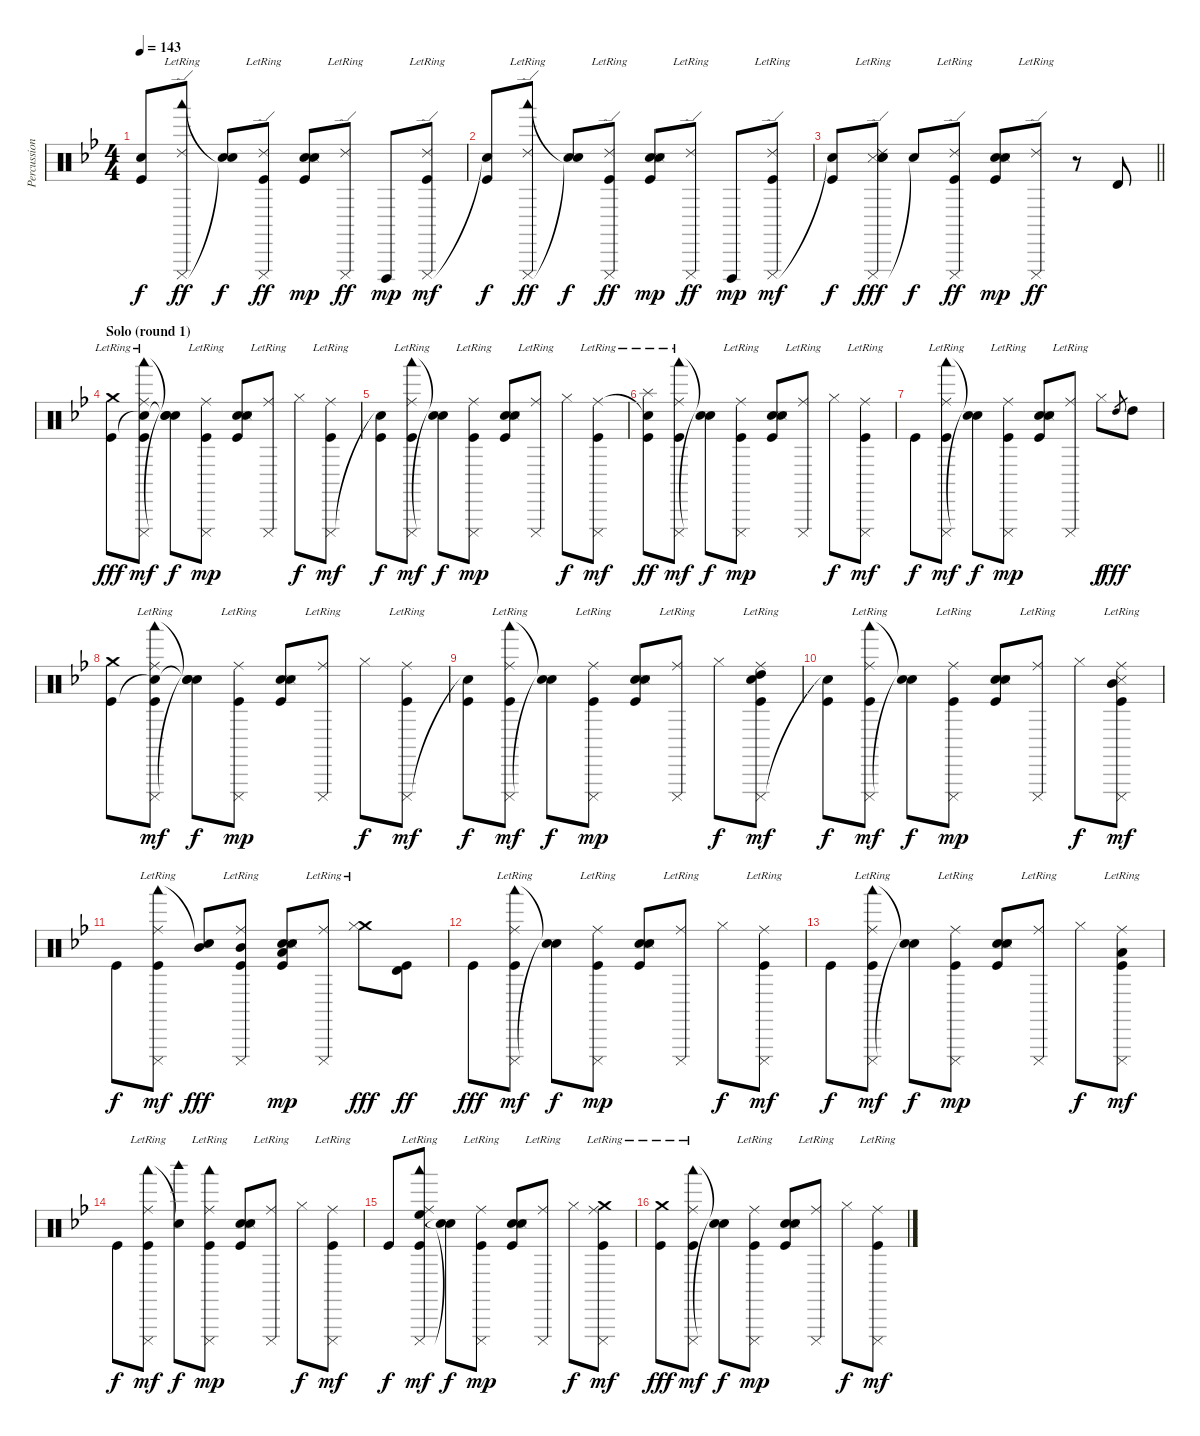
\track ("Percussion" "Percussion") {instrument percussion}
\staff {score}
\articulation defaults
\ts (4 4)
\tempo 143
\clef neutral
\ks gminor
("Snare (hit)"{t} "Kick (hit)").8{dy f} ("Cuica (mute)" "Woodblock low (hit)" "Ride (edge) 2"{lr}).8{dy ff} ("Snare (hit)"{t} "Snare (hit)"{t}).8{dy f} ("Cuica (mute)" "Ride (edge) 2"{lr} "Kick (hit)").8{dy ff} ("Snare (hit) 2" "Snare (side stick) 3" "Snare (hit) 2" "Kick (hit)").8{dy mp} ("Cuica (mute)" "Ride (edge) 2"{lr}).8{dy ff} "Cuica (open)".8{dy mp} ("Cuica (mute)" "Ride (edge) 2"{lr} "Kick (hit)").8{dy mf} |
("Snare (hit)"{t} "Kick (hit)").8{dy f} ("Cuica (mute)" "Woodblock low (hit)" "Ride (edge) 2"{lr}).8{dy ff} ("Snare (hit)"{t} "Snare (hit)"{t}).8{dy f} ("Cuica (mute)" "Ride (edge) 2"{lr} "Kick (hit)").8{dy ff} ("Snare (hit) 2" "Snare (side stick) 3" "Snare (hit) 2" "Kick (hit)").8{dy mp} ("Cuica (mute)" "Ride (edge) 2"{lr}).8{dy ff} "Cuica (open)".8{dy mp} ("Cuica (mute)" "Ride (edge) 2"{lr} "Kick (hit)").8{dy mf} |
\barLineRight lightlight
("Snare (hit)"{t} "Kick (hit)").8{dy f} ("Cuica (mute)" "Snare (side stick) 3" "Snare (hit) 2" "Ride (edge) 2"{lr} "Snare (hit) 2").8{dy fff} "Snare (hit)"{t}.8{dy f} ("Cuica (mute)" "Ride (edge) 2"{lr} "Kick (hit)").8{dy ff} ("Snare (hit) 2" "Snare (side stick) 3" "Snare (hit) 2" "Kick (hit)").8{dy mp} ("Cuica (mute)" "Ride (edge) 2"{lr}).8{dy ff} r.8 "Timbale high (hit)".8 |
\section ("" "Solo (round 1)")
("Crash medium (hit)"{lr} "Kick (hit)").8{dy fff} ("Cuica (mute)" "Snare (hit)"{t} "Woodblock low (hit)" "Ride (middle)"{lr} "Kick (hit)").8{dy mf} ("Snare (hit)"{t} "Snare (hit)"{t} "Snare (hit)"{t}).8{dy f} ("Cuica (mute)" "Ride (middle)"{lr} "Kick (hit)").8{dy mp} ("Snare (hit) 2" "Snare (side stick) 3" "Snare (hit) 2" "Kick (hit)").8 ("Cuica (mute)" "Ride (middle)"{lr}).8 "Hi-Hat (closed)".8{dy f} ("Cuica (mute)" "Ride (middle)"{lr} "Kick (hit)").8{dy mf} |
("Snare (hit)"{t} "Kick (hit)").8{dy f} ("Cuica (mute)" "Woodblock low (hit)" "Ride (middle)"{lr} "Kick (hit)").8{dy mf} ("Snare (hit)"{t} "Snare (hit)"{t}).8{dy f} ("Cuica (mute)" "Ride (middle)"{lr} "Kick (hit)").8{dy mp} ("Snare (hit) 2" "Snare (side stick) 3" "Snare (hit) 2" "Kick (hit)").8 ("Cuica (mute)" "Ride (middle)"{lr}).8 "Hi-Hat (closed)".8{dy f} ("Cuica (mute)" "Ride (middle)"{lr} "Kick (hit)").8{dy mf} |
("Splash (hit)"{lr} "Snare (hit)"{t} "Kick (hit)").8{dy ff} ("Cuica (mute)" "Woodblock low (hit)" "Ride (middle)"{lr} "Kick (hit)").8{dy mf} ("Snare (hit)"{t} "Snare (hit)"{t}).8{dy f} ("Cuica (mute)" "Ride (middle)"{lr} "Kick (hit)").8{dy mp} ("Snare (hit) 2" "Snare (side stick) 3" "Snare (hit) 2" "Kick (hit)").8 ("Cuica (mute)" "Ride (middle)"{lr}).8 "Hi-Hat (closed)".8{dy f} ("Cuica (mute)" "Ride (middle)"{lr} "Kick (hit)").8{dy mf} |
"Kick (hit)".8{dy f} ("Cuica (mute)" "Woodblock low (hit)" "Ride (middle)"{lr} "Kick (hit)").8{dy mf} ("Snare (hit)"{t} "Snare (hit)"{t}).8{dy f} ("Cuica (mute)" "Ride (middle)"{lr} "Kick (hit)").8{dy mp} ("Snare (hit) 2" "Snare (side stick) 3" "Snare (hit) 2" "Kick (hit)").8 ("Cuica (mute)" "Ride (middle)"{lr}).8 "Hi-Hat (closed)".8{dy f} "High Tom (hit)".8{gr dy fff} "High Tom (hit)".8 |
("Crash medium (hit)" "Kick (hit)").8 ("Cuica (mute)" "Snare (hit)"{t} "Woodblock low (hit)" "Ride (middle)"{lr} "Kick (hit)").8{dy mf} ("Snare (hit)"{t} "Snare (hit)"{t} "Snare (hit)"{t}).8{dy f} ("Cuica (mute)" "Ride (middle)"{lr} "Kick (hit)").8{dy mp} ("Snare (hit) 2" "Snare (side stick) 3" "Snare (hit) 2" "Kick (hit)").8 ("Cuica (mute)" "Ride (middle)"{lr}).8 "Hi-Hat (closed)".8{dy f} ("Cuica (mute)" "Ride (middle)"{lr} "Kick (hit)").8{dy mf} |
("Snare (hit)"{t} "Kick (hit)").8{dy f} ("Cuica (mute)" "Woodblock low (hit)" "Ride (middle)"{lr} "Kick (hit)").8{dy mf} ("Snare (hit)"{t} "Snare (hit)"{t}).8{dy f} ("Cuica (mute)" "Ride (middle)"{lr} "Kick (hit)").8{dy mp} ("Snare (hit) 2" "Snare (side stick) 3" "Snare (hit) 2" "Kick (hit)").8 ("Cuica (mute)" "Ride (middle)"{lr}).8 "Hi-Hat (closed)".8{dy f} ("Cuica (mute)" "Snare (hit) 2" "High Tom (hit)"{lr} "Ride (middle)"{lr} "Kick (hit)").8{dy mf} |
("Snare (hit)"{t} "Kick (hit)").8{dy f} ("Cuica (mute)" "Woodblock low (hit)" "Ride (middle)"{lr} "Kick (hit)").8{dy mf} ("Snare (hit)"{t} "Snare (hit)"{t}).8{dy f} ("Cuica (mute)" "Ride (middle)"{lr} "Kick (hit)").8{dy mp} ("Snare (hit) 2" "Snare (side stick) 3" "Snare (hit) 2" "Kick (hit)").8 ("Cuica (mute)" "Ride (middle)"{lr}).8 "Hi-Hat (closed)".8{dy f} ("Cuica (mute)" "Snare (side stick) 3" "Mid Tom (hit)"{lr} "Ride (middle)"{lr} "Kick (hit)").8{dy mf} |
"Kick (hit)".8{dy f} ("Cuica (mute)" "Woodblock low (hit)" "Ride (middle)"{lr} "Kick (hit)").8{dy mf} ("Mid Tom (hit)" "Snare (hit)"{t}).8{dy fff} ("Cuica (mute)" "Mid Tom (hit)" "Ride (middle)"{lr} "Kick (hit)").8 ("Snare (hit) 2" "Snare (side stick) 3" "Snare (hit) 2" "Low Tom (hit)" "Kick (hit)").8{dy mp} ("Cuica (mute)" "Ride (middle)"{lr}).8 ("Crash medium (hit)"{lr} "Hi-Hat (closed)").8{dy fff} ("Timbale high (hit)" "Kick (hit)").8{dy ff} |
"Kick (hit)".8{dy fff} ("Cuica (mute)" "Woodblock low (hit)" "Ride (middle)"{lr} "Kick (hit)").8{dy mf} ("Snare (hit)"{t} "Snare (hit)"{t}).8{dy f} ("Cuica (mute)" "Ride (middle)"{lr} "Kick (hit)").8{dy mp} ("Snare (hit) 2" "Snare (side stick) 3" "Snare (hit) 2" "Kick (hit)").8 ("Cuica (mute)" "Ride (middle)"{lr}).8 "Hi-Hat (closed)".8{dy f} ("Cuica (mute)" "Ride (middle)"{lr} "Kick (hit)").8{dy mf} |
"Kick (hit)".8{dy f} ("Cuica (mute)" "Woodblock low (hit)" "Ride (middle)"{lr} "Kick (hit)").8{dy mf} ("Snare (hit)"{t} "Snare (hit)"{t}).8{dy f} ("Cuica (mute)" "Ride (middle)"{lr} "Kick (hit)").8{dy mp} ("Snare (hit) 2" "Snare (side stick) 3" "Snare (hit) 2" "Kick (hit)").8 ("Cuica (mute)" "Ride (middle)"{lr}).8 "Hi-Hat (closed)".8{dy f} ("Cuica (mute)" "Low Tom (hit)"{lr} "Ride (middle)"{lr} "Kick (hit)").8{dy mf} |
"Kick (hit)".8{dy f} ("Cuica (mute)" "Woodblock low (hit)" "Ride (middle)"{lr} "Kick (hit)").8{dy mf} ("Woodblock high (hit)" "Snare (hit)"{t}).8{dy f} ("Cuica (mute)" "Woodblock low (hit)" "Ride (middle)"{lr} "Kick (hit)").8{dy mp} ("Snare (hit) 2" "Snare (side stick) 3" "Snare (hit) 2" "Kick (hit)").8 ("Cuica (mute)" "Ride (middle)"{lr}).8 "Hi-Hat (closed)".8{dy f} ("Cuica (mute)" "Ride (middle)"{lr} "Kick (hit)").8{dy mf} |
"Kick (hit)".8{dy f} ("Cuica (mute)" "High Floor Tom (hit)" "Woodblock low (hit)" "Ride (middle)"{lr} "Kick (hit)").8{dy mf} ("Snare (hit)"{t} "Snare (hit)"{t}).8{dy f} ("Cuica (mute)" "Ride (middle)"{lr} "Kick (hit)").8{dy mp} ("Snare (hit) 2" "Snare (side stick) 3" "Snare (hit) 2" "Kick (hit)").8 ("Cuica (mute)" "Ride (middle)"{lr}).8 "Hi-Hat (closed)".8{dy f} ("Cuica (mute)" "Crash medium (hit)" "Ride (middle)"{lr} "Kick (hit)").8{dy mf} |
("Crash medium (hit)"{lr} "Kick (hit)").8{dy fff} ("Cuica (mute)" "Woodblock low (hit)" "Ride (middle)"{lr} "Kick (hit)").8{dy mf} ("Snare (hit)"{t} "Snare (hit)"{t}).8{dy f} ("Cuica (mute)" "Ride (middle)"{lr} "Kick (hit)").8{dy mp} ("Snare (hit) 2" "Snare (side stick) 3" "Snare (hit) 2" "Kick (hit)").8 ("Cuica (mute)" "Ride (middle)"{lr}).8 "Hi-Hat (closed)".8{dy f} ("Cuica (mute)" "Ride (middle)"{lr} "Kick (hit)").8{dy mf}
